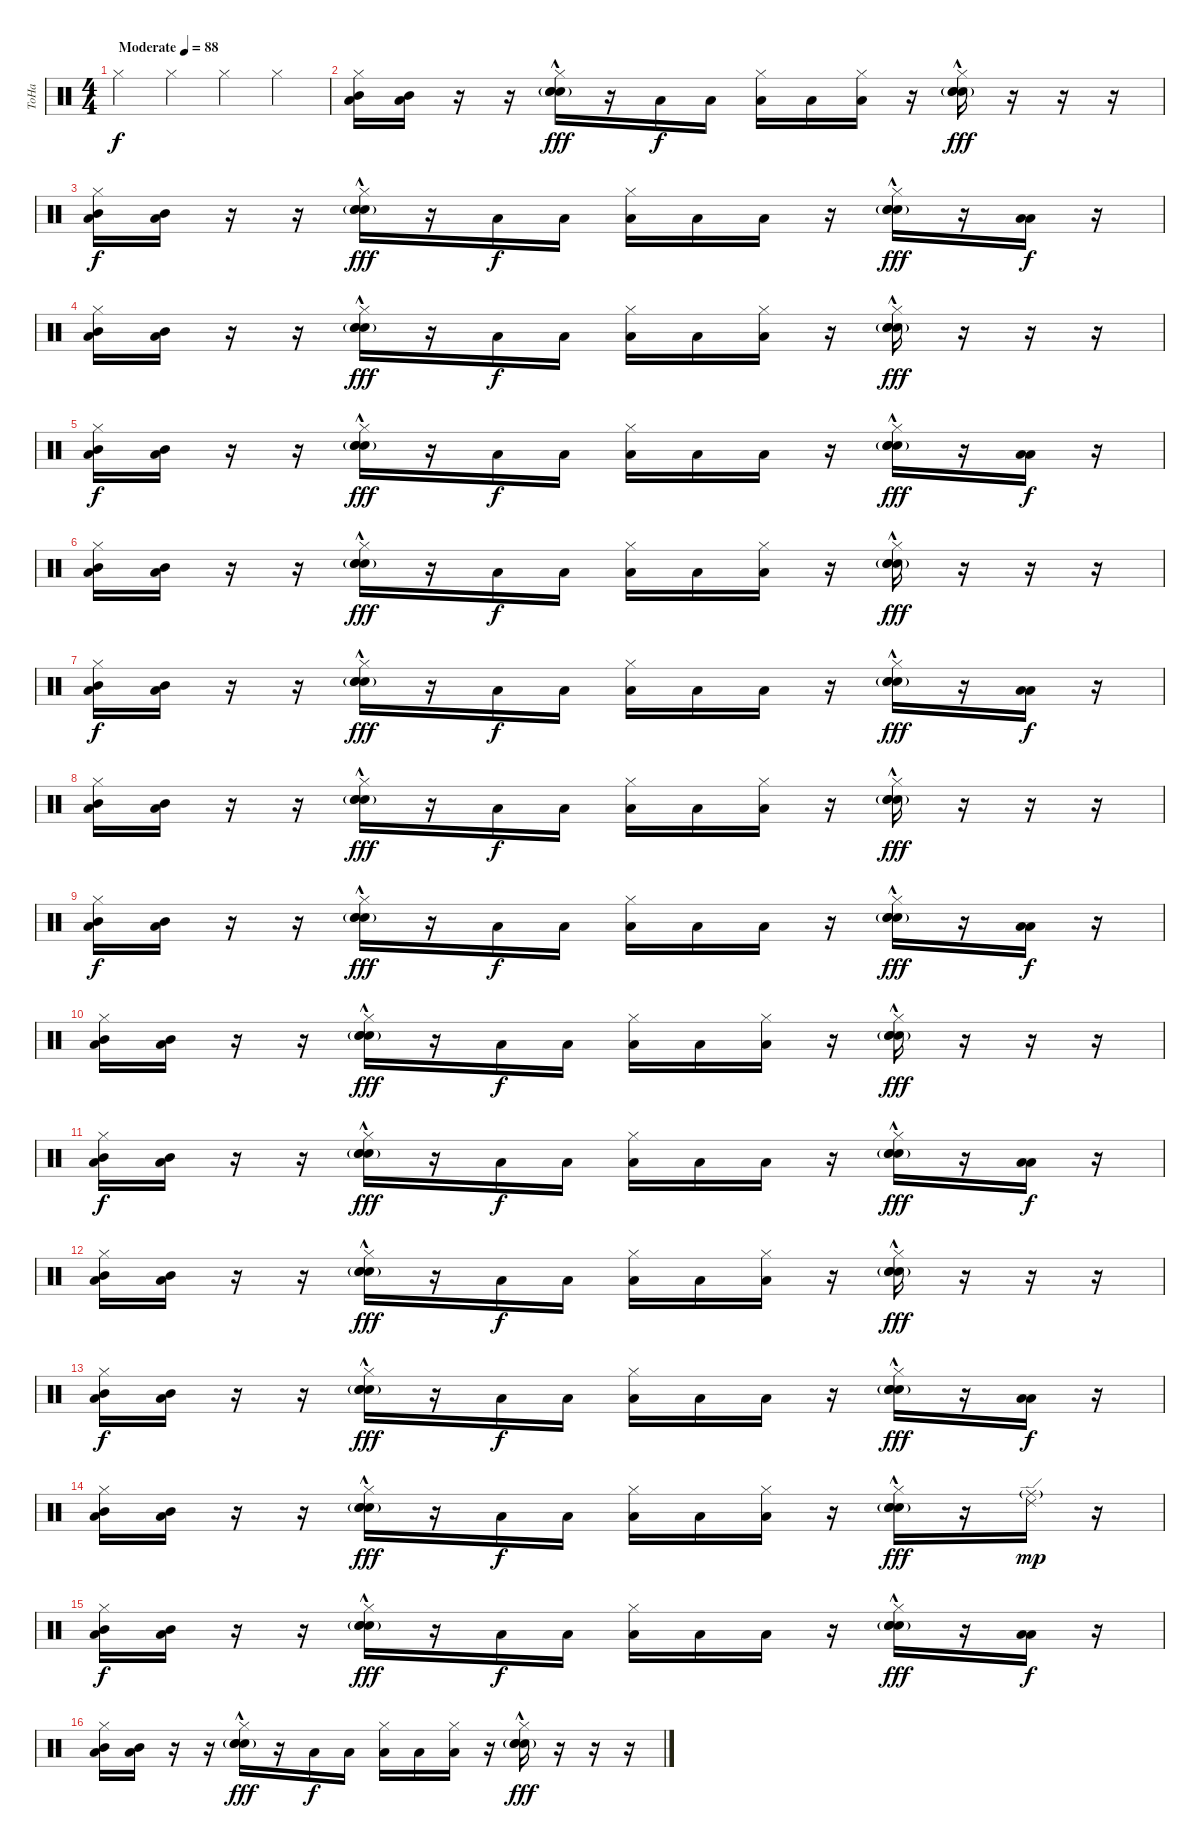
\track ("ToHa" "ToHa") {instrument percussion}
\staff {score}
\articulation defaults
\ts (4 4)
\tempo (88 "Moderate")
\clef neutral
\ks c "Hi-Hat (closed)".4{dy f} "Hi-Hat (closed)".4 "Hi-Hat (closed)".4 "Hi-Hat (closed)".4
|
("Hi-Hat (closed)" "Mid Tom (hit)" "Low Floor Tom (hit)").16 ("Mid Tom (hit)" "Low Floor Tom (hit)").16 r.16 r.16 ("Hi-Hat (closed)" "Hand Clap (hit)"{g} "Snare (hit) 2"{hac} "Electric Snare (hit)"{hac}).16{dy fff} r.16 "Low Floor Tom (hit)".16{dy f} "Low Floor Tom (hit)".16 ("Hi-Hat (closed)" "Low Tom (hit)").16 "Low Floor Tom (hit)".16 ("Hi-Hat (closed)" "Low Floor Tom (hit)").16 r.16 ("Hi-Hat (closed)" "Hand Clap (hit)"{g} "Snare (hit) 2"{hac} "Electric Snare (hit)"{hac}).16{dy fff} r.16 r.16 r.16 |
("Hi-Hat (closed)" "Mid Tom (hit)" "Low Floor Tom (hit)").16{dy f} ("Mid Tom (hit)" "Low Floor Tom (hit)").16 r.16 r.16 ("Hi-Hat (closed)" "Hand Clap (hit)"{g} "Snare (hit) 2"{hac} "Electric Snare (hit)"{hac}).16{dy fff} r.16 "Low Floor Tom (hit)".16{dy f} "Low Floor Tom (hit)".16 ("Hi-Hat (closed)" "Low Tom (hit)").16 "Low Floor Tom (hit)".16 "Low Floor Tom (hit)".16 r.16 ("Hi-Hat (closed)" "Hand Clap (hit)"{g} "Snare (hit) 2"{hac} "Electric Snare (hit)"{hac}).16{dy fff} r.16 ("Low Tom (hit)" "Low Floor Tom (hit)").16{dy f} r.16 |
("Hi-Hat (closed)" "Mid Tom (hit)" "Low Floor Tom (hit)").16 ("Mid Tom (hit)" "Low Floor Tom (hit)").16 r.16 r.16 ("Hi-Hat (closed)" "Hand Clap (hit)"{g} "Snare (hit) 2"{hac} "Electric Snare (hit)"{hac}).16{dy fff} r.16 "Low Floor Tom (hit)".16{dy f} "Low Floor Tom (hit)".16 ("Hi-Hat (closed)" "Low Tom (hit)").16 "Low Floor Tom (hit)".16 ("Hi-Hat (closed)" "Low Floor Tom (hit)").16 r.16 ("Hi-Hat (closed)" "Hand Clap (hit)"{g} "Snare (hit) 2"{hac} "Electric Snare (hit)"{hac}).16{dy fff} r.16 r.16 r.16 |
("Hi-Hat (closed)" "Mid Tom (hit)" "Low Floor Tom (hit)").16{dy f} ("Mid Tom (hit)" "Low Floor Tom (hit)").16 r.16 r.16 ("Hi-Hat (closed)" "Hand Clap (hit)"{g} "Snare (hit) 2"{hac} "Electric Snare (hit)"{hac}).16{dy fff} r.16 "Low Floor Tom (hit)".16{dy f} "Low Floor Tom (hit)".16 ("Hi-Hat (closed)" "Low Tom (hit)").16 "Low Floor Tom (hit)".16 "Low Floor Tom (hit)".16 r.16 ("Hi-Hat (closed)" "Hand Clap (hit)"{g} "Snare (hit) 2"{hac} "Electric Snare (hit)"{hac}).16{dy fff} r.16 ("Low Tom (hit)" "Low Floor Tom (hit)").16{dy f} r.16 |
("Hi-Hat (closed)" "Mid Tom (hit)" "Low Floor Tom (hit)").16 ("Mid Tom (hit)" "Low Floor Tom (hit)").16 r.16 r.16 ("Hi-Hat (closed)" "Hand Clap (hit)"{g} "Snare (hit) 2"{hac} "Electric Snare (hit)"{hac}).16{dy fff} r.16 "Low Floor Tom (hit)".16{dy f} "Low Floor Tom (hit)".16 ("Hi-Hat (closed)" "Low Tom (hit)").16 "Low Floor Tom (hit)".16 ("Hi-Hat (closed)" "Low Floor Tom (hit)").16 r.16 ("Hi-Hat (closed)" "Hand Clap (hit)"{g} "Snare (hit) 2"{hac} "Electric Snare (hit)"{hac}).16{dy fff} r.16 r.16 r.16 |
("Hi-Hat (closed)" "Mid Tom (hit)" "Low Floor Tom (hit)").16{dy f} ("Mid Tom (hit)" "Low Floor Tom (hit)").16 r.16 r.16 ("Hi-Hat (closed)" "Hand Clap (hit)"{g} "Snare (hit) 2"{hac} "Electric Snare (hit)"{hac}).16{dy fff} r.16 "Low Floor Tom (hit)".16{dy f} "Low Floor Tom (hit)".16 ("Hi-Hat (closed)" "Low Tom (hit)").16 "Low Floor Tom (hit)".16 "Low Floor Tom (hit)".16 r.16 ("Hi-Hat (closed)" "Hand Clap (hit)"{g} "Snare (hit) 2"{hac} "Electric Snare (hit)"{hac}).16{dy fff} r.16 ("Low Tom (hit)" "Low Floor Tom (hit)").16{dy f} r.16 |
("Hi-Hat (closed)" "Mid Tom (hit)" "Low Floor Tom (hit)").16 ("Mid Tom (hit)" "Low Floor Tom (hit)").16 r.16 r.16 ("Hi-Hat (closed)" "Hand Clap (hit)"{g} "Snare (hit) 2"{hac} "Electric Snare (hit)"{hac}).16{dy fff} r.16 "Low Floor Tom (hit)".16{dy f} "Low Floor Tom (hit)".16 ("Hi-Hat (closed)" "Low Tom (hit)").16 "Low Floor Tom (hit)".16 ("Hi-Hat (closed)" "Low Floor Tom (hit)").16 r.16 ("Hi-Hat (closed)" "Hand Clap (hit)"{g} "Snare (hit) 2"{hac} "Electric Snare (hit)"{hac}).16{dy fff} r.16 r.16 r.16 |
("Hi-Hat (closed)" "Mid Tom (hit)" "Low Floor Tom (hit)").16{dy f} ("Mid Tom (hit)" "Low Floor Tom (hit)").16 r.16 r.16 ("Hi-Hat (closed)" "Hand Clap (hit)"{g} "Snare (hit) 2"{hac} "Electric Snare (hit)"{hac}).16{dy fff} r.16 "Low Floor Tom (hit)".16{dy f} "Low Floor Tom (hit)".16 ("Hi-Hat (closed)" "Low Tom (hit)").16 "Low Floor Tom (hit)".16 "Low Floor Tom (hit)".16 r.16 ("Hi-Hat (closed)" "Hand Clap (hit)"{g} "Snare (hit) 2"{hac} "Electric Snare (hit)"{hac}).16{dy fff} r.16 ("Low Tom (hit)" "Low Floor Tom (hit)").16{dy f} r.16 |
("Hi-Hat (closed)" "Mid Tom (hit)" "Low Floor Tom (hit)").16 ("Mid Tom (hit)" "Low Floor Tom (hit)").16 r.16 r.16 ("Hi-Hat (closed)" "Hand Clap (hit)"{g} "Snare (hit) 2"{hac} "Electric Snare (hit)"{hac}).16{dy fff} r.16 "Low Floor Tom (hit)".16{dy f} "Low Floor Tom (hit)".16 ("Hi-Hat (closed)" "Low Tom (hit)").16 "Low Floor Tom (hit)".16 ("Hi-Hat (closed)" "Low Floor Tom (hit)").16 r.16 ("Hi-Hat (closed)" "Hand Clap (hit)"{g} "Snare (hit) 2"{hac} "Electric Snare (hit)"{hac}).16{dy fff} r.16 r.16 r.16 |
("Hi-Hat (closed)" "Mid Tom (hit)" "Low Floor Tom (hit)").16{dy f} ("Mid Tom (hit)" "Low Floor Tom (hit)").16 r.16 r.16 ("Hi-Hat (closed)" "Hand Clap (hit)"{g} "Snare (hit) 2"{hac} "Electric Snare (hit)"{hac}).16{dy fff} r.16 "Low Floor Tom (hit)".16{dy f} "Low Floor Tom (hit)".16 ("Hi-Hat (closed)" "Low Tom (hit)").16 "Low Floor Tom (hit)".16 "Low Floor Tom (hit)".16 r.16 ("Hi-Hat (closed)" "Hand Clap (hit)"{g} "Snare (hit) 2"{hac} "Electric Snare (hit)"{hac}).16{dy fff} r.16 ("Low Tom (hit)" "Low Floor Tom (hit)").16{dy f} r.16 |
("Hi-Hat (closed)" "Mid Tom (hit)" "Low Floor Tom (hit)").16 ("Mid Tom (hit)" "Low Floor Tom (hit)").16 r.16 r.16 ("Hi-Hat (closed)" "Hand Clap (hit)"{g} "Snare (hit) 2"{hac} "Electric Snare (hit)"{hac}).16{dy fff} r.16 "Low Floor Tom (hit)".16{dy f} "Low Floor Tom (hit)".16 ("Hi-Hat (closed)" "Low Tom (hit)").16 "Low Floor Tom (hit)".16 ("Hi-Hat (closed)" "Low Floor Tom (hit)").16 r.16 ("Hi-Hat (closed)" "Hand Clap (hit)"{g} "Snare (hit) 2"{hac} "Electric Snare (hit)"{hac}).16{dy fff} r.16 r.16 r.16 |
("Hi-Hat (closed)" "Mid Tom (hit)" "Low Floor Tom (hit)").16{dy f} ("Mid Tom (hit)" "Low Floor Tom (hit)").16 r.16 r.16 ("Hi-Hat (closed)" "Hand Clap (hit)"{g} "Snare (hit) 2"{hac} "Electric Snare (hit)"{hac}).16{dy fff} r.16 "Low Floor Tom (hit)".16{dy f} "Low Floor Tom (hit)".16 ("Hi-Hat (closed)" "Low Tom (hit)").16 "Low Floor Tom (hit)".16 "Low Floor Tom (hit)".16 r.16 ("Hi-Hat (closed)" "Hand Clap (hit)"{g} "Snare (hit) 2"{hac} "Electric Snare (hit)"{hac}).16{dy fff} r.16 ("Low Tom (hit)" "Low Floor Tom (hit)").16{dy f} r.16 |
("Hi-Hat (closed)" "Mid Tom (hit)" "Low Floor Tom (hit)").16 ("Mid Tom (hit)" "Low Floor Tom (hit)").16 r.16 r.16 ("Hi-Hat (closed)" "Hand Clap (hit)"{g} "Snare (hit) 2"{hac} "Electric Snare (hit)"{hac}).16{dy fff} r.16 "Low Floor Tom (hit)".16{dy f} "Low Floor Tom (hit)".16 ("Hi-Hat (closed)" "Low Tom (hit)").16 "Low Floor Tom (hit)".16 ("Hi-Hat (closed)" "Low Floor Tom (hit)").16 r.16 ("Hi-Hat (closed)" "Hand Clap (hit)"{g} "Snare (hit) 2"{hac} "Electric Snare (hit)"{hac}).16{dy fff} r.16 ("Ride (edge) 2" "Ride (middle)"{g}).16{dy mp} r.16 |
("Hi-Hat (closed)" "Mid Tom (hit)" "Low Floor Tom (hit)").16{dy f} ("Mid Tom (hit)" "Low Floor Tom (hit)").16 r.16 r.16 ("Hi-Hat (closed)" "Hand Clap (hit)"{g} "Snare (hit) 2"{hac} "Electric Snare (hit)"{hac}).16{dy fff} r.16 "Low Floor Tom (hit)".16{dy f} "Low Floor Tom (hit)".16 ("Hi-Hat (closed)" "Low Tom (hit)").16 "Low Floor Tom (hit)".16 "Low Floor Tom (hit)".16 r.16 ("Hi-Hat (closed)" "Hand Clap (hit)"{g} "Snare (hit) 2"{hac} "Electric Snare (hit)"{hac}).16{dy fff} r.16 ("Low Tom (hit)" "Low Floor Tom (hit)").16{dy f} r.16 |
("Hi-Hat (closed)" "Mid Tom (hit)" "Low Floor Tom (hit)").16 ("Mid Tom (hit)" "Low Floor Tom (hit)").16 r.16 r.16 ("Hi-Hat (closed)" "Hand Clap (hit)"{g} "Snare (hit) 2"{hac} "Electric Snare (hit)"{hac}).16{dy fff} r.16 "Low Floor Tom (hit)".16{dy f} "Low Floor Tom (hit)".16 ("Hi-Hat (closed)" "Low Tom (hit)").16 "Low Floor Tom (hit)".16 ("Hi-Hat (closed)" "Low Floor Tom (hit)").16 r.16 ("Hi-Hat (closed)" "Hand Clap (hit)"{g} "Snare (hit) 2"{hac} "Electric Snare (hit)"{hac}).16{dy fff} r.16 r.16 r.16
